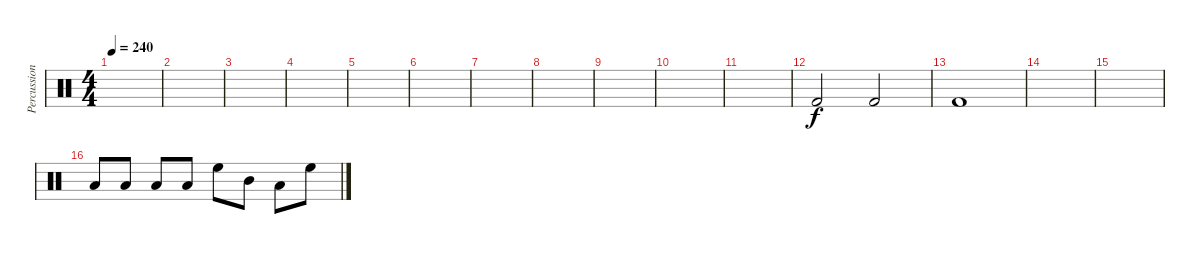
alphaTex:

\track ("Percussion" "Percussion") {instrument percussion}
\staff {score}
\articulation defaults
\ts (4 4)
\tempo 240
\clef neutral
\ks c
|
|
|
|
|
|
|
|
|
|
|
"Kick (hit) 2".2 "Kick (hit) 2".2 |
"Kick (hit) 2".1 |
|
|
"Low Floor Tom (hit)".8 "Low Floor Tom (hit)".8 "Low Floor Tom (hit)".8 "Low Tom (hit)".8 "High Floor Tom (hit)".8 "Mid Tom (hit)".8 "Low Floor Tom (hit)".8 "High Floor Tom (hit)".8
